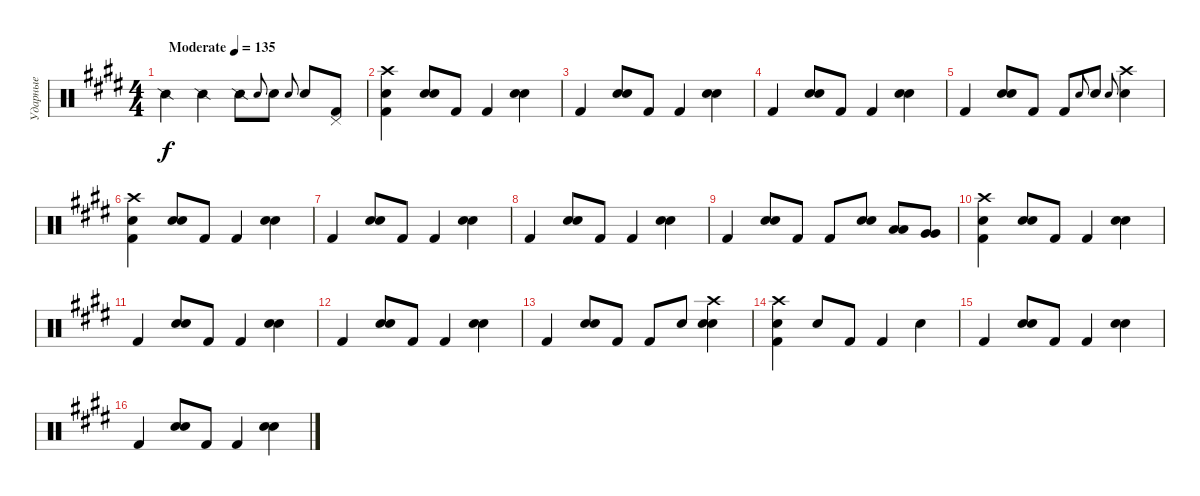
\track ("Ударные" "Ударные") {instrument percussion}
\staff {score}
\articulation defaults
\ts (4 4)
\tempo (135 "Moderate")
\clef neutral
\ks c#minor "Snare (side stick) 2".4{dy f} "Snare (side stick) 2".4 "Snare (side stick) 2".8 "Electric Snare (hit)".8{gr onbeat} "Electric Snare (hit)".8 "Electric Snare (hit)".8{gr onbeat} "Electric Snare (hit)".8
("Pedal Hi-Hat (hit)" "Kick (hit) 2").8 |
("Crash high (hit)" "Electric Snare (hit)" "Kick (hit) 2").4 ("Snare (hit) 2" "Electric Snare (hit)").8 "Kick (hit) 2".8 "Kick (hit) 2".4 ("Snare (hit) 2" "Electric Snare (hit)").4 |
"Kick (hit) 2".4 ("Snare (hit) 2" "Electric Snare (hit)").8 "Kick (hit) 2".8 "Kick (hit) 2".4 ("Snare (hit) 2" "Electric Snare (hit)").4 |
"Kick (hit) 2".4 ("Snare (hit) 2" "Electric Snare (hit)").8 "Kick (hit) 2".8 "Kick (hit) 2".4 ("Snare (hit) 2" "Electric Snare (hit)").4 |
"Kick (hit) 2".4 ("Snare (hit) 2" "Electric Snare (hit)").8 "Kick (hit) 2".8 "Kick (hit) 2".8 "Electric Snare (hit)".8{gr onbeat} "Electric Snare (hit)".8 "Electric Snare (hit)".8{gr onbeat} ("Crash high (hit)" "Electric Snare (hit)").4 |
("Crash high (hit)" "Electric Snare (hit)" "Kick (hit) 2").4 ("Snare (hit) 2" "Electric Snare (hit)").8 "Kick (hit) 2".8 "Kick (hit) 2".4 ("Snare (hit) 2" "Electric Snare (hit)").4 |
"Kick (hit) 2".4 ("Snare (hit) 2" "Electric Snare (hit)").8 "Kick (hit) 2".8 "Kick (hit) 2".4 ("Snare (hit) 2" "Electric Snare (hit)").4 |
"Kick (hit) 2".4 ("Snare (hit) 2" "Electric Snare (hit)").8 "Kick (hit) 2".8 "Kick (hit) 2".4 ("Snare (hit) 2" "Electric Snare (hit)").4 |
"Kick (hit) 2".4 ("Snare (hit) 2" "Electric Snare (hit)").8 "Kick (hit) 2".8 "Kick (hit) 2".8 ("Electric Snare (hit)" "Electric Snare (hit)").8 ("Low Floor Tom (hit)" "Low Floor Tom (hit)").8 ("Very Low Tom (hit)" "Very Low Tom (hit)").8 |
("Crash high (hit)" "Electric Snare (hit)" "Kick (hit) 2").4 ("Snare (hit) 2" "Electric Snare (hit)").8 "Kick (hit) 2".8 "Kick (hit) 2".4 ("Snare (hit) 2" "Electric Snare (hit)").4 |
"Kick (hit) 2".4 ("Snare (hit) 2" "Electric Snare (hit)").8 "Kick (hit) 2".8 "Kick (hit) 2".4 ("Snare (hit) 2" "Electric Snare (hit)").4 |
"Kick (hit) 2".4 ("Snare (hit) 2" "Electric Snare (hit)").8 "Kick (hit) 2".8 "Kick (hit) 2".4 ("Snare (hit) 2" "Electric Snare (hit)").4 |
"Kick (hit) 2".4 ("Snare (hit) 2" "Electric Snare (hit)").8 "Kick (hit) 2".8 "Kick (hit) 2".8 "Electric Snare (hit)".8 ("Crash high (hit)" "Snare (hit) 2" "Electric Snare (hit)").4 |
("Crash high (hit)" "Electric Snare (hit)" "Kick (hit) 2").4 "Electric Snare (hit)".8 "Kick (hit) 2".8 "Kick (hit) 2".4 "Electric Snare (hit)".4 |
"Kick (hit) 2".4 ("Snare (hit) 2" "Electric Snare (hit)").8 "Kick (hit) 2".8 "Kick (hit) 2".4 ("Snare (hit) 2" "Electric Snare (hit)").4 |
"Kick (hit) 2".4 ("Snare (hit) 2" "Electric Snare (hit)").8 "Kick (hit) 2".8 "Kick (hit) 2".4 ("Snare (hit) 2" "Electric Snare (hit)").4
